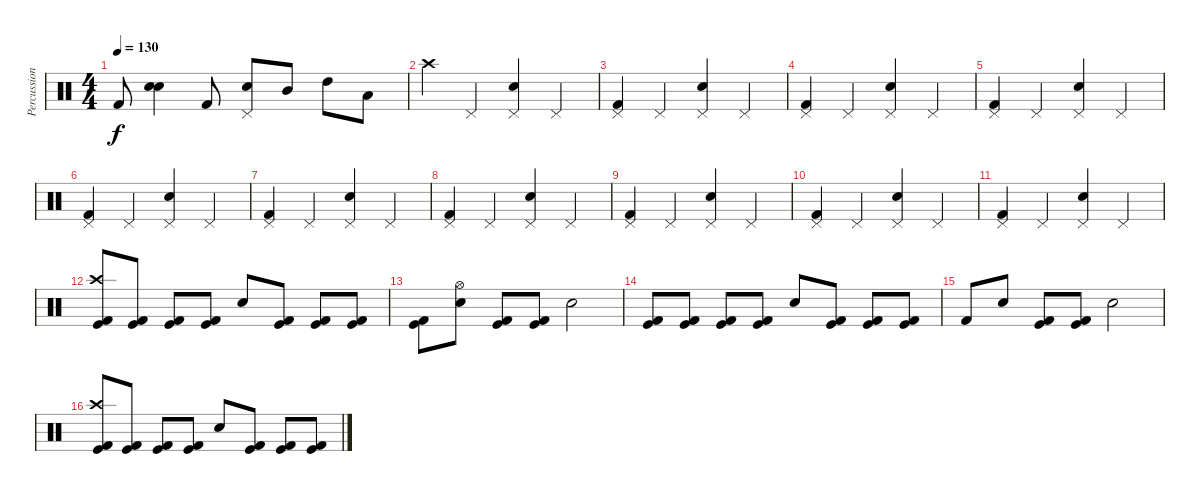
\track ("Percussion 2" "Percussion") {instrument percussion}
\staff {score}
\articulation defaults
\ts (4 4)
\tempo 130
\clef neutral
\ks c "Kick (hit) 2".8{dy f}
("Electric Snare (hit)" "Snare (hit) 2").4 "Kick (hit) 2".8 ("Pedal Hi-Hat (hit)" "Snare (hit) 2").8 "Mid Tom (hit)".8 "High Tom (hit)".8 "Low Tom (hit)".8 |
"Crash high (hit)".4 "Pedal Hi-Hat (hit)".4 ("Pedal Hi-Hat (hit)" "Snare (hit) 2").4 "Pedal Hi-Hat (hit)".4 |
("Pedal Hi-Hat (hit)" "Kick (hit) 2").4 "Pedal Hi-Hat (hit)".4 ("Pedal Hi-Hat (hit)" "Snare (hit) 2").4 "Pedal Hi-Hat (hit)".4 |
("Pedal Hi-Hat (hit)" "Kick (hit) 2").4 "Pedal Hi-Hat (hit)".4 ("Pedal Hi-Hat (hit)" "Snare (hit) 2").4 "Pedal Hi-Hat (hit)".4 |
("Pedal Hi-Hat (hit)" "Kick (hit) 2").4 "Pedal Hi-Hat (hit)".4 ("Pedal Hi-Hat (hit)" "Snare (hit) 2").4 "Pedal Hi-Hat (hit)".4 |
("Pedal Hi-Hat (hit)" "Kick (hit) 2").4 "Pedal Hi-Hat (hit)".4 ("Pedal Hi-Hat (hit)" "Snare (hit) 2").4 "Pedal Hi-Hat (hit)".4 |
("Pedal Hi-Hat (hit)" "Kick (hit) 2").4 "Pedal Hi-Hat (hit)".4 ("Pedal Hi-Hat (hit)" "Snare (hit) 2").4 "Pedal Hi-Hat (hit)".4 |
("Pedal Hi-Hat (hit)" "Kick (hit) 2").4 "Pedal Hi-Hat (hit)".4 ("Pedal Hi-Hat (hit)" "Snare (hit) 2").4 "Pedal Hi-Hat (hit)".4 |
("Pedal Hi-Hat (hit)" "Kick (hit) 2").4 "Pedal Hi-Hat (hit)".4 ("Pedal Hi-Hat (hit)" "Snare (hit) 2").4 "Pedal Hi-Hat (hit)".4 |
("Pedal Hi-Hat (hit)" "Kick (hit) 2").4 "Pedal Hi-Hat (hit)".4 ("Pedal Hi-Hat (hit)" "Snare (hit) 2").4 "Pedal Hi-Hat (hit)".4 |
("Pedal Hi-Hat (hit)" "Kick (hit) 2").4 "Pedal Hi-Hat (hit)".4 ("Pedal Hi-Hat (hit)" "Snare (hit) 2").4 "Pedal Hi-Hat (hit)".4 |
("Crash high (hit)" "Kick (hit) 2" "Kick (hit)").8 ("Kick (hit) 2" "Kick (hit)").8 ("Kick (hit) 2" "Kick (hit)").8 ("Kick (hit) 2" "Kick (hit)").8 "Snare (hit) 2".8 ("Kick (hit) 2" "Kick (hit)").8 ("Kick (hit) 2" "Kick (hit)").8 ("Kick (hit) 2" "Kick (hit)").8 |
("Kick (hit) 2" "Kick (hit)").8 ("Snare (hit) 2" "Hi-Hat (open)").8 ("Kick (hit) 2" "Kick (hit)").8 ("Kick (hit) 2" "Kick (hit)").8 "Snare (hit) 2".2 |
("Kick (hit) 2" "Kick (hit)").8 ("Kick (hit) 2" "Kick (hit)").8 ("Kick (hit) 2" "Kick (hit)").8 ("Kick (hit) 2" "Kick (hit)").8 "Snare (hit) 2".8 ("Kick (hit) 2" "Kick (hit)").8 ("Kick (hit) 2" "Kick (hit)").8 ("Kick (hit) 2" "Kick (hit)").8 |
"Kick (hit) 2".8 "Snare (hit) 2".8 ("Kick (hit) 2" "Kick (hit)").8 ("Kick (hit) 2" "Kick (hit)").8 "Snare (hit) 2".2 |
("Crash high (hit)" "Kick (hit) 2" "Kick (hit)").8 ("Kick (hit) 2" "Kick (hit)").8 ("Kick (hit) 2" "Kick (hit)").8 ("Kick (hit) 2" "Kick (hit)").8 "Snare (hit) 2".8 ("Kick (hit) 2" "Kick (hit)").8 ("Kick (hit) 2" "Kick (hit)").8 ("Kick (hit) 2" "Kick (hit)").8
